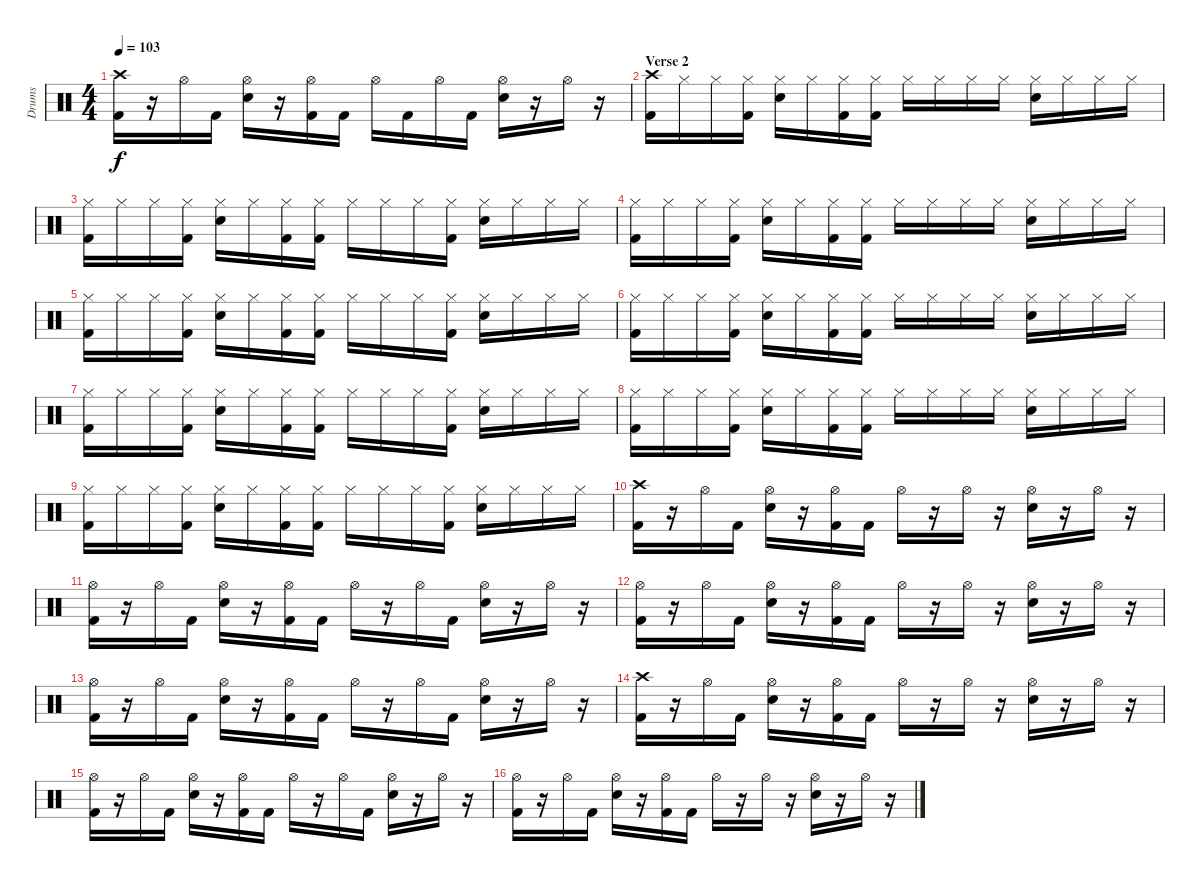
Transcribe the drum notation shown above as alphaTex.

\track ("Drums" "Drums") {instrument percussion}
\staff {score}
\articulation defaults
\ts (4 4)
\tempo 103
\clef neutral
\ks c
("Crash high (hit)" "Kick (hit) 2").16{dy f} r.16 "Hi-Hat (open)".16 "Kick (hit) 2".16 ("Hi-Hat (open)" "Electric Snare (hit)").16 r.16 ("Hi-Hat (open)" "Kick (hit) 2").16 "Kick (hit) 2".16 "Hi-Hat (open)".16 "Kick (hit) 2".16 "Hi-Hat (open)".16 "Kick (hit) 2".16 ("Hi-Hat (open)" "Electric Snare (hit)").16 r.16 "Hi-Hat (open)".16 r.16 |
\section ("" "Verse 2")
("Crash high (hit)" "Kick (hit) 2").16 "Hi-Hat (closed)".16 "Hi-Hat (closed)".16 ("Hi-Hat (closed)" "Kick (hit) 2").16 ("Hi-Hat (closed)" "Electric Snare (hit)").16 "Hi-Hat (closed)".16 ("Hi-Hat (closed)" "Kick (hit) 2").16 ("Hi-Hat (closed)" "Kick (hit) 2").16 "Hi-Hat (closed)".16 "Hi-Hat (closed)".16 "Hi-Hat (closed)".16 "Hi-Hat (closed)".16 ("Hi-Hat (closed)" "Electric Snare (hit)").16 "Hi-Hat (closed)".16 "Hi-Hat (closed)".16 "Hi-Hat (closed)".16 |
("Hi-Hat (closed)" "Kick (hit) 2").16 "Hi-Hat (closed)".16 "Hi-Hat (closed)".16 ("Hi-Hat (closed)" "Kick (hit) 2").16 ("Hi-Hat (closed)" "Electric Snare (hit)").16 "Hi-Hat (closed)".16 ("Hi-Hat (closed)" "Kick (hit) 2").16 ("Hi-Hat (closed)" "Kick (hit) 2").16 "Hi-Hat (closed)".16 "Hi-Hat (closed)".16 "Hi-Hat (closed)".16 ("Hi-Hat (closed)" "Kick (hit) 2").16 ("Hi-Hat (closed)" "Electric Snare (hit)").16 "Hi-Hat (closed)".16 "Hi-Hat (closed)".16 "Hi-Hat (closed)".16 |
("Hi-Hat (closed)" "Kick (hit) 2").16 "Hi-Hat (closed)".16 "Hi-Hat (closed)".16 ("Hi-Hat (closed)" "Kick (hit) 2").16 ("Hi-Hat (closed)" "Electric Snare (hit)").16 "Hi-Hat (closed)".16 ("Hi-Hat (closed)" "Kick (hit) 2").16 ("Hi-Hat (closed)" "Kick (hit) 2").16 "Hi-Hat (closed)".16 "Hi-Hat (closed)".16 "Hi-Hat (closed)".16 "Hi-Hat (closed)".16 ("Hi-Hat (closed)" "Electric Snare (hit)").16 "Hi-Hat (closed)".16 "Hi-Hat (closed)".16 "Hi-Hat (closed)".16 |
("Hi-Hat (closed)" "Kick (hit) 2").16 "Hi-Hat (closed)".16 "Hi-Hat (closed)".16 ("Hi-Hat (closed)" "Kick (hit) 2").16 ("Hi-Hat (closed)" "Electric Snare (hit)").16 "Hi-Hat (closed)".16 ("Hi-Hat (closed)" "Kick (hit) 2").16 ("Hi-Hat (closed)" "Kick (hit) 2").16 "Hi-Hat (closed)".16 "Hi-Hat (closed)".16 "Hi-Hat (closed)".16 ("Hi-Hat (closed)" "Kick (hit) 2").16 ("Hi-Hat (closed)" "Electric Snare (hit)").16 "Hi-Hat (closed)".16 "Hi-Hat (closed)".16 "Hi-Hat (closed)".16 |
("Hi-Hat (closed)" "Kick (hit) 2").16 "Hi-Hat (closed)".16 "Hi-Hat (closed)".16 ("Hi-Hat (closed)" "Kick (hit) 2").16 ("Hi-Hat (closed)" "Electric Snare (hit)").16 "Hi-Hat (closed)".16 ("Hi-Hat (closed)" "Kick (hit) 2").16 ("Hi-Hat (closed)" "Kick (hit) 2").16 "Hi-Hat (closed)".16 "Hi-Hat (closed)".16 "Hi-Hat (closed)".16 "Hi-Hat (closed)".16 ("Hi-Hat (closed)" "Electric Snare (hit)").16 "Hi-Hat (closed)".16 "Hi-Hat (closed)".16 "Hi-Hat (closed)".16 |
("Hi-Hat (closed)" "Kick (hit) 2").16 "Hi-Hat (closed)".16 "Hi-Hat (closed)".16 ("Hi-Hat (closed)" "Kick (hit) 2").16 ("Hi-Hat (closed)" "Electric Snare (hit)").16 "Hi-Hat (closed)".16 ("Hi-Hat (closed)" "Kick (hit) 2").16 ("Hi-Hat (closed)" "Kick (hit) 2").16 "Hi-Hat (closed)".16 "Hi-Hat (closed)".16 "Hi-Hat (closed)".16 ("Hi-Hat (closed)" "Kick (hit) 2").16 ("Hi-Hat (closed)" "Electric Snare (hit)").16 "Hi-Hat (closed)".16 "Hi-Hat (closed)".16 "Hi-Hat (closed)".16 |
("Hi-Hat (closed)" "Kick (hit) 2").16 "Hi-Hat (closed)".16 "Hi-Hat (closed)".16 ("Hi-Hat (closed)" "Kick (hit) 2").16 ("Hi-Hat (closed)" "Electric Snare (hit)").16 "Hi-Hat (closed)".16 ("Hi-Hat (closed)" "Kick (hit) 2").16 ("Hi-Hat (closed)" "Kick (hit) 2").16 "Hi-Hat (closed)".16 "Hi-Hat (closed)".16 "Hi-Hat (closed)".16 "Hi-Hat (closed)".16 ("Hi-Hat (closed)" "Electric Snare (hit)").16 "Hi-Hat (closed)".16 "Hi-Hat (closed)".16 "Hi-Hat (closed)".16 |
("Hi-Hat (closed)" "Kick (hit) 2").16 "Hi-Hat (closed)".16 "Hi-Hat (closed)".16 ("Hi-Hat (closed)" "Kick (hit) 2").16 ("Hi-Hat (closed)" "Electric Snare (hit)").16 "Hi-Hat (closed)".16 ("Hi-Hat (closed)" "Kick (hit) 2").16 ("Hi-Hat (closed)" "Kick (hit) 2").16 "Hi-Hat (closed)".16 "Hi-Hat (closed)".16 "Hi-Hat (closed)".16 ("Hi-Hat (closed)" "Kick (hit) 2").16 ("Hi-Hat (closed)" "Electric Snare (hit)").16 "Hi-Hat (closed)".16 "Hi-Hat (closed)".16 "Hi-Hat (closed)".16 |
("Crash high (hit)" "Kick (hit) 2").16 r.16 "Hi-Hat (open)".16 "Kick (hit) 2".16 ("Hi-Hat (open)" "Electric Snare (hit)").16 r.16 ("Hi-Hat (open)" "Kick (hit) 2").16 "Kick (hit) 2".16 "Hi-Hat (open)".16 r.16 "Hi-Hat (open)".16 r.16 ("Hi-Hat (open)" "Electric Snare (hit)").16 r.16 "Hi-Hat (open)".16 r.16 |
("Hi-Hat (open)" "Kick (hit) 2").16 r.16 "Hi-Hat (open)".16 "Kick (hit) 2".16 ("Hi-Hat (open)" "Electric Snare (hit)").16 r.16 ("Hi-Hat (open)" "Kick (hit) 2").16 "Kick (hit) 2".16 "Hi-Hat (open)".16 r.16 "Hi-Hat (open)".16 "Kick (hit) 2".16 ("Hi-Hat (open)" "Electric Snare (hit)").16 r.16 "Hi-Hat (open)".16 r.16 |
("Hi-Hat (open)" "Kick (hit) 2").16 r.16 "Hi-Hat (open)".16 "Kick (hit) 2".16 ("Hi-Hat (open)" "Electric Snare (hit)").16 r.16 ("Hi-Hat (open)" "Kick (hit) 2").16 "Kick (hit) 2".16 "Hi-Hat (open)".16 r.16 "Hi-Hat (open)".16 r.16 ("Hi-Hat (open)" "Electric Snare (hit)").16 r.16 "Hi-Hat (open)".16 r.16 |
("Hi-Hat (open)" "Kick (hit) 2").16 r.16 "Hi-Hat (open)".16 "Kick (hit) 2".16 ("Hi-Hat (open)" "Electric Snare (hit)").16 r.16 ("Hi-Hat (open)" "Kick (hit) 2").16 "Kick (hit) 2".16 "Hi-Hat (open)".16 r.16 "Hi-Hat (open)".16 "Kick (hit) 2".16 ("Hi-Hat (open)" "Electric Snare (hit)").16 r.16 "Hi-Hat (open)".16 r.16 |
("Crash high (hit)" "Kick (hit) 2").16 r.16 "Hi-Hat (open)".16 "Kick (hit) 2".16 ("Hi-Hat (open)" "Electric Snare (hit)").16 r.16 ("Hi-Hat (open)" "Kick (hit) 2").16 "Kick (hit) 2".16 "Hi-Hat (open)".16 r.16 "Hi-Hat (open)".16 r.16 ("Hi-Hat (open)" "Electric Snare (hit)").16 r.16 "Hi-Hat (open)".16 r.16 |
("Hi-Hat (open)" "Kick (hit) 2").16 r.16 "Hi-Hat (open)".16 "Kick (hit) 2".16 ("Hi-Hat (open)" "Electric Snare (hit)").16 r.16 ("Hi-Hat (open)" "Kick (hit) 2").16 "Kick (hit) 2".16 "Hi-Hat (open)".16 r.16 "Hi-Hat (open)".16 "Kick (hit) 2".16 ("Hi-Hat (open)" "Electric Snare (hit)").16 r.16 "Hi-Hat (open)".16 r.16 |
("Hi-Hat (open)" "Kick (hit) 2").16 r.16 "Hi-Hat (open)".16 "Kick (hit) 2".16 ("Hi-Hat (open)" "Electric Snare (hit)").16 r.16 ("Hi-Hat (open)" "Kick (hit) 2").16 "Kick (hit) 2".16 "Hi-Hat (open)".16 r.16 "Hi-Hat (open)".16 r.16 ("Hi-Hat (open)" "Electric Snare (hit)").16 r.16 "Hi-Hat (open)".16 r.16
